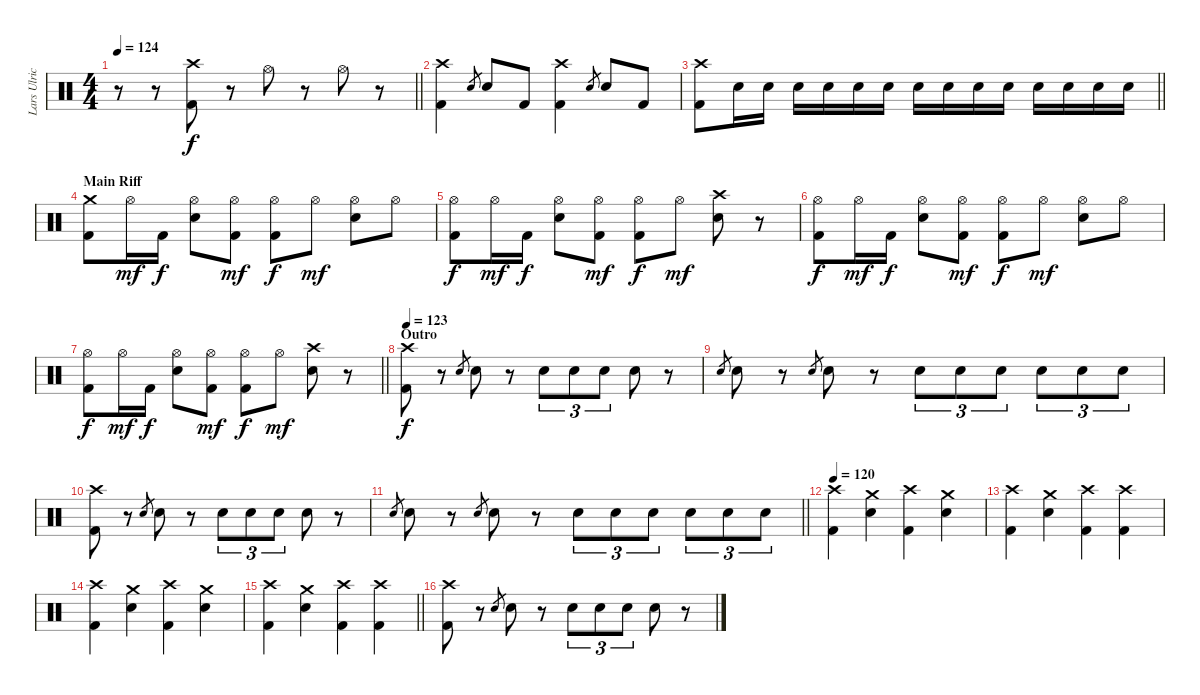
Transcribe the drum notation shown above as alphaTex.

\track ("Lars Ulrich" "Lars Ulric") {instrument percussion}
\staff {score}
\articulation defaults
\ts (4 4)
\tempo 124
\clef neutral
\barLineRight lightlight
\ks c
r.8{dy f} r.8 ("Crash high (hit)" "Kick (hit) 2").8 r.8 "Hi-Hat (open)".8 r.8 "Hi-Hat (open)".8 r.8 |
("Crash high (hit)" "Kick (hit) 2").4 "Snare (hit) 2".8{gr} "Snare (hit) 2".8 "Kick (hit) 2".8 ("Crash high (hit)" "Kick (hit) 2").4 "Snare (hit) 2".8{gr} "Snare (hit) 2".8 "Kick (hit) 2".8 |
\barLineRight lightlight
("Crash high (hit)" "Kick (hit) 2").8 "Snare (hit) 2".16 "Snare (hit) 2".16 "Snare (hit) 2".16 "Snare (hit) 2".16 "Snare (hit) 2".16 "Snare (hit) 2".16 "Snare (hit) 2".16 "Snare (hit) 2".16 "Snare (hit) 2".16 "Snare (hit) 2".16 "Snare (hit) 2".16 "Snare (hit) 2".16 "Snare (hit) 2".16 "Snare (hit) 2".16 |
\section ("" "Main Riff")
("Crash medium (hit)" "Kick (hit) 2").8 "Hi-Hat (open)".16{dy mf} "Kick (hit) 2".16{dy f} ("Hi-Hat (open)" "Snare (hit) 2").8 ("Hi-Hat (open)" "Kick (hit) 2").8{dy mf} ("Hi-Hat (open)" "Kick (hit) 2").8{dy f} "Hi-Hat (open)".8{dy mf} ("Hi-Hat (open)" "Snare (hit) 2").8 "Hi-Hat (open)".8 |
("Hi-Hat (open)" "Kick (hit) 2").8{dy f} "Hi-Hat (open)".16{dy mf} "Kick (hit) 2".16{dy f} ("Hi-Hat (open)" "Snare (hit) 2").8 ("Hi-Hat (open)" "Kick (hit) 2").8{dy mf} ("Hi-Hat (open)" "Kick (hit) 2").8{dy f} "Hi-Hat (open)".8{dy mf} ("Crash high (hit)" "Snare (hit) 2").8 r.8 |
("Hi-Hat (open)" "Kick (hit) 2").8{dy f} "Hi-Hat (open)".16{dy mf} "Kick (hit) 2".16{dy f} ("Hi-Hat (open)" "Snare (hit) 2").8 ("Hi-Hat (open)" "Kick (hit) 2").8{dy mf} ("Hi-Hat (open)" "Kick (hit) 2").8{dy f} "Hi-Hat (open)".8{dy mf} ("Hi-Hat (open)" "Snare (hit) 2").8 "Hi-Hat (open)".8 |
\barLineRight lightlight
("Hi-Hat (open)" "Kick (hit) 2").8{dy f} "Hi-Hat (open)".16{dy mf} "Kick (hit) 2".16{dy f} ("Hi-Hat (open)" "Snare (hit) 2").8 ("Hi-Hat (open)" "Kick (hit) 2").8{dy mf} ("Hi-Hat (open)" "Kick (hit) 2").8{dy f} "Hi-Hat (open)".8{dy mf} ("Crash high (hit)" "Snare (hit) 2").8 r.8 |
\section ("" "Outro")
\tempo 123
("Crash high (hit)" "Kick (hit) 2").8{dy f} r.8 "Snare (hit) 2".8{gr} "Snare (hit) 2".8 r.8 "Snare (hit) 2".8{tu (3 2)} "Snare (hit) 2".8{tu (3 2)} "Snare (hit) 2".8{tu (3 2)} "Snare (hit) 2".8 r.8 |
"Snare (hit) 2".8{gr} "Snare (hit) 2".8 r.8 "Snare (hit) 2".8{gr} "Snare (hit) 2".8 r.8 "Snare (hit) 2".8{tu (3 2)} "Snare (hit) 2".8{tu (3 2)} "Snare (hit) 2".8{tu (3 2)} "Snare (hit) 2".8{tu (3 2)} "Snare (hit) 2".8{tu (3 2)} "Snare (hit) 2".8{tu (3 2)} |
("Crash high (hit)" "Kick (hit) 2").8 r.8 "Snare (hit) 2".8{gr} "Snare (hit) 2".8 r.8 "Snare (hit) 2".8{tu (3 2)} "Snare (hit) 2".8{tu (3 2)} "Snare (hit) 2".8{tu (3 2)} "Snare (hit) 2".8 r.8 |
\barLineRight lightlight "Snare (hit) 2".8{gr} "Snare (hit) 2".8
r.8 "Snare (hit) 2".8{gr} "Snare (hit) 2".8 r.8 "Snare (hit) 2".8{tu (3 2)} "Snare (hit) 2".8{tu (3 2)} "Snare (hit) 2".8{tu (3 2)} "Snare (hit) 2".8{tu (3 2)} "Snare (hit) 2".8{tu (3 2)} "Snare (hit) 2".8{tu (3 2)} |
\tempo 120
("Crash high (hit)" "Kick (hit) 2").4 ("Crash medium (hit)" "Snare (hit) 2").4 ("Crash high (hit)" "Kick (hit) 2").4 ("Crash medium (hit)" "Snare (hit) 2").4 |
("Crash high (hit)" "Kick (hit) 2").4 ("Crash medium (hit)" "Snare (hit) 2").4 ("Crash high (hit)" "Kick (hit) 2").4 ("Crash high (hit)" "Kick (hit) 2").4 |
("Crash high (hit)" "Kick (hit) 2").4 ("Crash medium (hit)" "Snare (hit) 2").4 ("Crash high (hit)" "Kick (hit) 2").4 ("Crash medium (hit)" "Snare (hit) 2").4 |
\barLineRight lightlight
("Crash high (hit)" "Kick (hit) 2").4 ("Crash medium (hit)" "Snare (hit) 2").4 ("Crash high (hit)" "Kick (hit) 2").4 ("Crash high (hit)" "Kick (hit) 2").4 |
("Crash high (hit)" "Kick (hit) 2").8 r.8 "Snare (hit) 2".8{gr} "Snare (hit) 2".8 r.8 "Snare (hit) 2".8{tu (3 2)} "Snare (hit) 2".8{tu (3 2)} "Snare (hit) 2".8{tu (3 2)} "Snare (hit) 2".8 r.8
